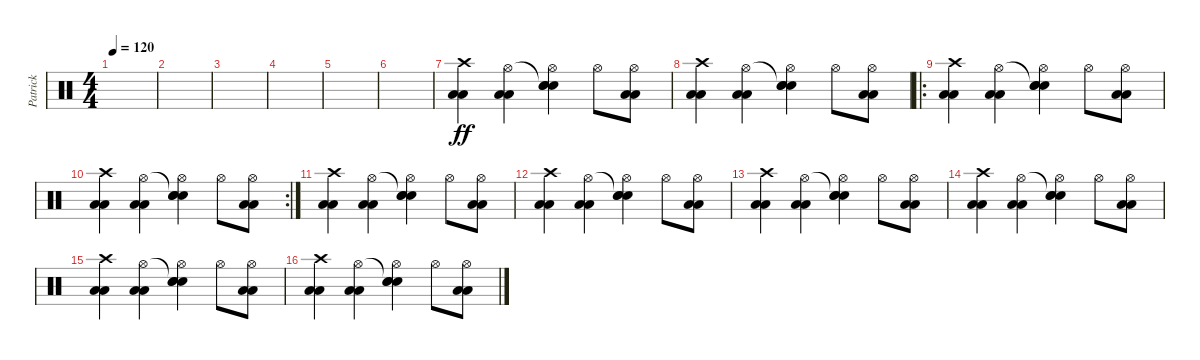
\track ("Patrick" "Patrick") {instrument percussion}
\staff {score}
\articulation defaults
\ts (4 4)
\tempo 120
\clef neutral
\ks c
|
|
|
|
|
|
("Crash high (hit)" "Low Floor Tom (hit)" "Low Floor Tom (hit)").4{dy ff} ("Hi-Hat (open)" "Low Floor Tom (hit)" "Low Floor Tom (hit)").4 ("Snare (hit)"{t} "Hi-Hat (open)" "Electric Snare (hit)" "Electric Snare (hit)").4 "Hi-Hat (open)".8 ("Hi-Hat (open)" "Low Floor Tom (hit)" "Low Floor Tom (hit)").8 |
("Crash high (hit)" "Low Floor Tom (hit)" "Low Floor Tom (hit)").4 ("Hi-Hat (open)" "Low Floor Tom (hit)" "Low Floor Tom (hit)").4 ("Snare (hit)"{t} "Hi-Hat (open)" "Electric Snare (hit)" "Electric Snare (hit)").4 "Hi-Hat (open)".8 ("Hi-Hat (open)" "Low Floor Tom (hit)" "Low Floor Tom (hit)").8 |
\ro
("Crash high (hit)" "Low Floor Tom (hit)" "Low Floor Tom (hit)").4 ("Hi-Hat (open)" "Low Floor Tom (hit)" "Low Floor Tom (hit)").4 ("Snare (hit)"{t} "Hi-Hat (open)" "Electric Snare (hit)" "Electric Snare (hit)").4 "Hi-Hat (open)".8 ("Hi-Hat (open)" "Low Floor Tom (hit)" "Low Floor Tom (hit)").8 |
\rc 2
("Crash high (hit)" "Low Floor Tom (hit)" "Low Floor Tom (hit)").4 ("Hi-Hat (open)" "Low Floor Tom (hit)" "Low Floor Tom (hit)").4 ("Snare (hit)"{t} "Hi-Hat (open)" "Electric Snare (hit)" "Electric Snare (hit)").4 "Hi-Hat (open)".8 ("Hi-Hat (open)" "Low Floor Tom (hit)" "Low Floor Tom (hit)").8 |
("Crash high (hit)" "Low Floor Tom (hit)" "Low Floor Tom (hit)").4 ("Hi-Hat (open)" "Low Floor Tom (hit)" "Low Floor Tom (hit)").4 ("Snare (hit)"{t} "Hi-Hat (open)" "Electric Snare (hit)" "Electric Snare (hit)").4 "Hi-Hat (open)".8 ("Hi-Hat (open)" "Low Floor Tom (hit)" "Low Floor Tom (hit)").8 |
("Crash high (hit)" "Low Floor Tom (hit)" "Low Floor Tom (hit)").4 ("Hi-Hat (open)" "Low Floor Tom (hit)" "Low Floor Tom (hit)").4 ("Snare (hit)"{t} "Hi-Hat (open)" "Electric Snare (hit)" "Electric Snare (hit)").4 "Hi-Hat (open)".8 ("Hi-Hat (open)" "Low Floor Tom (hit)" "Low Floor Tom (hit)").8 |
("Crash high (hit)" "Low Floor Tom (hit)" "Low Floor Tom (hit)").4 ("Hi-Hat (open)" "Low Floor Tom (hit)" "Low Floor Tom (hit)").4 ("Snare (hit)"{t} "Hi-Hat (open)" "Electric Snare (hit)" "Electric Snare (hit)").4 "Hi-Hat (open)".8 ("Hi-Hat (open)" "Low Floor Tom (hit)" "Low Floor Tom (hit)").8 |
("Crash high (hit)" "Low Floor Tom (hit)" "Low Floor Tom (hit)").4 ("Hi-Hat (open)" "Low Floor Tom (hit)" "Low Floor Tom (hit)").4 ("Snare (hit)"{t} "Hi-Hat (open)" "Electric Snare (hit)" "Electric Snare (hit)").4 "Hi-Hat (open)".8 ("Hi-Hat (open)" "Low Floor Tom (hit)" "Low Floor Tom (hit)").8 |
("Crash high (hit)" "Low Floor Tom (hit)" "Low Floor Tom (hit)").4 ("Hi-Hat (open)" "Low Floor Tom (hit)" "Low Floor Tom (hit)").4 ("Snare (hit)"{t} "Hi-Hat (open)" "Electric Snare (hit)" "Electric Snare (hit)").4 "Hi-Hat (open)".8 ("Hi-Hat (open)" "Low Floor Tom (hit)" "Low Floor Tom (hit)").8 |
("Crash high (hit)" "Low Floor Tom (hit)" "Low Floor Tom (hit)").4 ("Hi-Hat (open)" "Low Floor Tom (hit)" "Low Floor Tom (hit)").4 ("Snare (hit)"{t} "Hi-Hat (open)" "Electric Snare (hit)" "Electric Snare (hit)").4 "Hi-Hat (open)".8 ("Hi-Hat (open)" "Low Floor Tom (hit)" "Low Floor Tom (hit)").8
